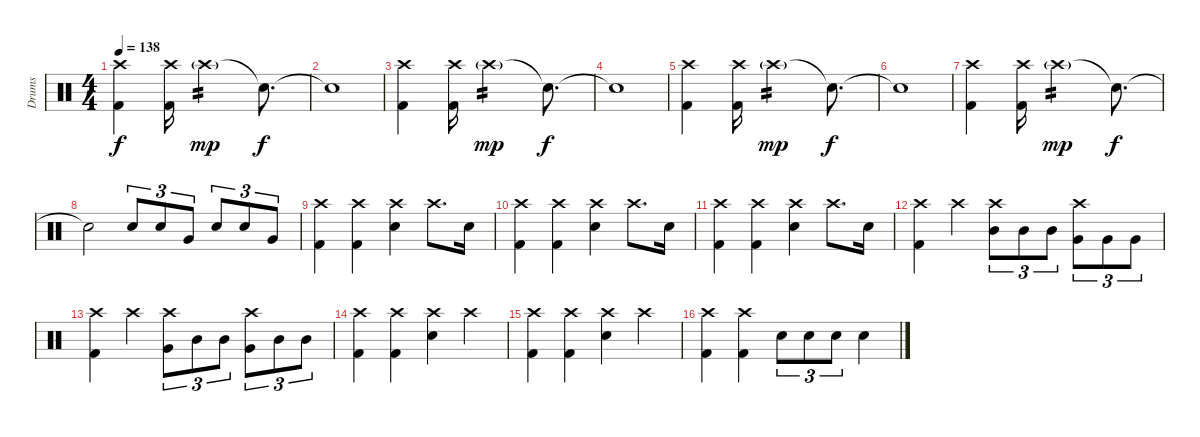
\track ("Drums" "Drums") {instrument percussion}
\staff {score}
\articulation defaults
\ts (4 4)
\tempo 138
\clef neutral
\ks c
("Crash high (hit)" "Kick (hit) 2").4{dy f} ("Crash high (hit)" "Kick (hit) 2").16 "Crash high (hit)"{g}.2{tp 2 dy mp} "Snare (hit)"{t}.8{d dy f} |
"Snare (hit)"{t}.1 |
("Crash high (hit)" "Kick (hit) 2").4 ("Crash high (hit)" "Kick (hit) 2").16 "Crash high (hit)"{g}.2{tp 2 dy mp} "Snare (hit)"{t}.8{d dy f} |
"Snare (hit)"{t}.1 |
("Crash high (hit)" "Kick (hit) 2").4 ("Crash high (hit)" "Kick (hit) 2").16 "Crash high (hit)"{g}.2{tp 2 dy mp} "Snare (hit)"{t}.8{d dy f} |
"Snare (hit)"{t}.1 |
("Crash high (hit)" "Kick (hit) 2").4 ("Crash high (hit)" "Kick (hit) 2").16 "Crash high (hit)"{g}.2{tp 2 dy mp} "Snare (hit)"{t}.8{d dy f} |
"Snare (hit)"{t}.2 "Snare (hit) 2".8{tu (3 2)} "Snare (hit) 2".8{tu (3 2)} "Very Low Tom (hit)".8{tu (3 2)} "Snare (hit) 2".8{tu (3 2)} "Snare (hit) 2".8{tu (3 2)} "Very Low Tom (hit)".8{tu (3 2)} |
("Crash high (hit)" "Kick (hit) 2").4 ("Crash high (hit)" "Kick (hit) 2").4 ("Crash high (hit)" "Snare (hit) 2").4 "Crash high (hit)".8{d} "Snare (hit) 2".16 |
("Crash high (hit)" "Kick (hit) 2").4 ("Crash high (hit)" "Kick (hit) 2").4 ("Crash high (hit)" "Snare (hit) 2").4 "Crash high (hit)".8{d} "Snare (hit) 2".16 |
("Crash high (hit)" "Kick (hit) 2").4 ("Crash high (hit)" "Kick (hit) 2").4 ("Crash high (hit)" "Snare (hit) 2").4 "Crash high (hit)".8{d} "Snare (hit) 2".16 |
("Crash high (hit)" "Kick (hit) 2").4 "Crash high (hit)".4 ("Crash high (hit)" "Mid Tom (hit)").8{tu (3 2)} "Mid Tom (hit)".8{tu (3 2)} "Mid Tom (hit)".8{tu (3 2)} ("Crash high (hit)" "Very Low Tom (hit)").8{tu (3 2)} "Very Low Tom (hit)".8{tu (3 2)} "Very Low Tom (hit)".8{tu (3 2)} |
("Crash high (hit)" "Kick (hit) 2").4 "Crash high (hit)".4 ("Crash high (hit)" "Very Low Tom (hit)").8{tu (3 2)} "Mid Tom (hit)".8{tu (3 2)} "Mid Tom (hit)".8{tu (3 2)} ("Crash high (hit)" "Very Low Tom (hit)").8{tu (3 2)} "Mid Tom (hit)".8{tu (3 2)} "Mid Tom (hit)".8{tu (3 2)} |
("Crash high (hit)" "Kick (hit) 2").4 ("Crash high (hit)" "Kick (hit) 2").4 ("Crash high (hit)" "Snare (hit) 2").4 "Crash high (hit)".4 |
("Crash high (hit)" "Kick (hit) 2").4 ("Crash high (hit)" "Kick (hit) 2").4 ("Crash high (hit)" "Snare (hit) 2").4 "Crash high (hit)".4 |
("Crash high (hit)" "Kick (hit) 2").4 ("Crash high (hit)" "Kick (hit) 2").4 "Snare (hit) 2".8{tu (3 2)} "Snare (hit) 2".8{tu (3 2)} "Snare (hit) 2".8{tu (3 2)} "Snare (hit) 2".4
